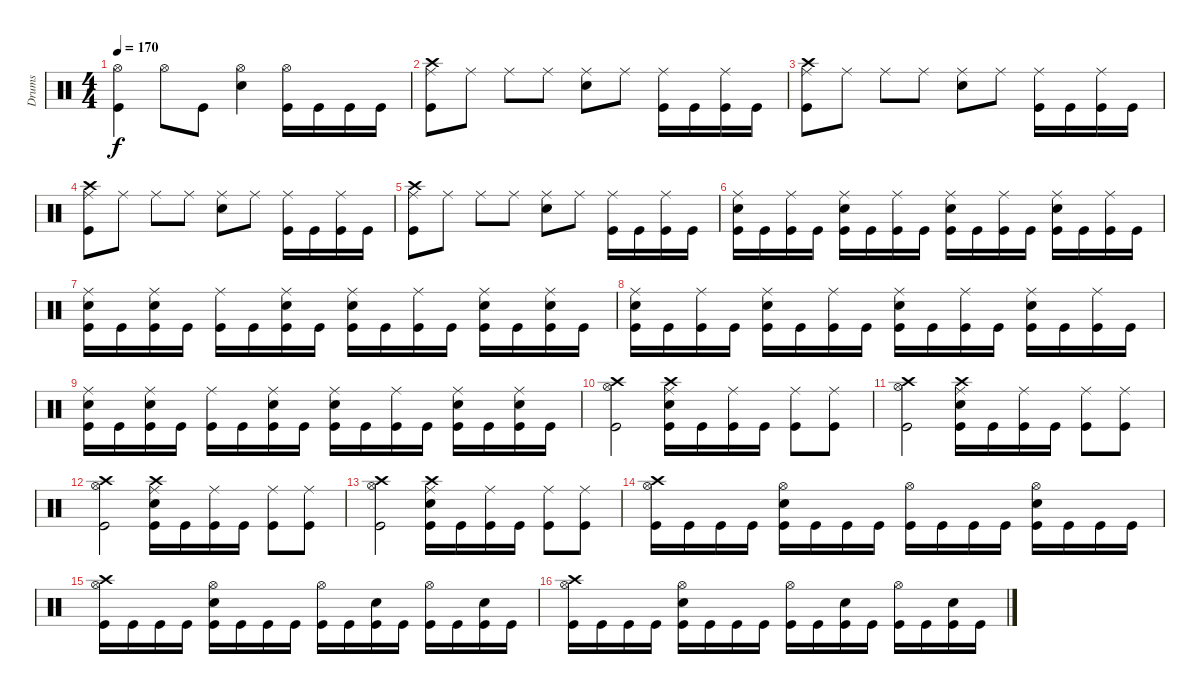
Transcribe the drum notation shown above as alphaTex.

\track ("Drums" "Drums") {instrument percussion}
\staff {score}
\articulation defaults
\ts (4 4)
\tempo 170
\clef neutral
\ks c
("Hi-Hat (open)" "Kick (hit)").4{dy f} "Hi-Hat (open)".8 "Kick (hit)".8 ("Hi-Hat (open)" "Snare (hit) 2").4 ("Hi-Hat (open)" "Kick (hit)").16 "Kick (hit)".16 "Kick (hit)".16 "Kick (hit)".16 |
("Ride (middle)" "Crash high (hit)" "Kick (hit)").8 "Ride (middle)".8 "Ride (middle)".8 "Ride (middle)".8 ("Ride (middle)" "Snare (hit) 2").8 "Ride (middle)".8 ("Ride (middle)" "Kick (hit)").16 "Kick (hit)".16 ("Ride (middle)" "Kick (hit)").16 "Kick (hit)".16 |
("Ride (middle)" "Crash high (hit)" "Kick (hit)").8 "Ride (middle)".8 "Ride (middle)".8 "Ride (middle)".8 ("Ride (middle)" "Snare (hit) 2").8 "Ride (middle)".8 ("Ride (middle)" "Kick (hit)").16 "Kick (hit)".16 ("Ride (middle)" "Kick (hit)").16 "Kick (hit)".16 |
("Ride (middle)" "Crash high (hit)" "Kick (hit)").8 "Ride (middle)".8 "Ride (middle)".8 "Ride (middle)".8 ("Ride (middle)" "Snare (hit) 2").8 "Ride (middle)".8 ("Ride (middle)" "Kick (hit)").16 "Kick (hit)".16 ("Ride (middle)" "Kick (hit)").16 "Kick (hit)".16 |
("Ride (middle)" "Crash high (hit)" "Kick (hit)").8 "Ride (middle)".8 "Ride (middle)".8 "Ride (middle)".8 ("Ride (middle)" "Snare (hit) 2").8 "Ride (middle)".8 ("Ride (middle)" "Kick (hit)").16 "Kick (hit)".16 ("Ride (middle)" "Kick (hit)").16 "Kick (hit)".16 |
("Ride (middle)" "Snare (hit) 2" "Kick (hit)").16 "Kick (hit)".16 ("Ride (middle)" "Kick (hit)").16 "Kick (hit)".16 ("Ride (middle)" "Snare (hit) 2" "Kick (hit)").16 "Kick (hit)".16 ("Ride (middle)" "Kick (hit)").16 "Kick (hit)".16 ("Ride (middle)" "Snare (hit) 2" "Kick (hit)").16 "Kick (hit)".16 ("Ride (middle)" "Kick (hit)").16 "Kick (hit)".16 ("Ride (middle)" "Snare (hit) 2" "Kick (hit)").16 "Kick (hit)".16 ("Ride (middle)" "Kick (hit)").16 "Kick (hit)".16 |
("Ride (middle)" "Snare (hit) 2" "Kick (hit)").16 "Kick (hit)".16 ("Ride (middle)" "Snare (hit) 2" "Kick (hit)").16 "Kick (hit)".16 ("Ride (middle)" "Kick (hit)").16 "Kick (hit)".16 ("Ride (middle)" "Snare (hit) 2" "Kick (hit)").16 "Kick (hit)".16 ("Ride (middle)" "Snare (hit) 2" "Kick (hit)").16 "Kick (hit)".16 ("Ride (middle)" "Kick (hit)").16 "Kick (hit)".16 ("Ride (middle)" "Snare (hit) 2" "Kick (hit)").16 "Kick (hit)".16 ("Ride (middle)" "Snare (hit) 2" "Kick (hit)").16 "Kick (hit)".16 |
("Ride (middle)" "Snare (hit) 2" "Kick (hit)").16 "Kick (hit)".16 ("Ride (middle)" "Kick (hit)").16 "Kick (hit)".16 ("Ride (middle)" "Snare (hit) 2" "Kick (hit)").16 "Kick (hit)".16 ("Ride (middle)" "Kick (hit)").16 "Kick (hit)".16 ("Ride (middle)" "Snare (hit) 2" "Kick (hit)").16 "Kick (hit)".16 ("Ride (middle)" "Kick (hit)").16 "Kick (hit)".16 ("Ride (middle)" "Snare (hit) 2" "Kick (hit)").16 "Kick (hit)".16 ("Ride (middle)" "Kick (hit)").16 "Kick (hit)".16 |
("Ride (middle)" "Snare (hit) 2" "Kick (hit)").16 "Kick (hit)".16 ("Ride (middle)" "Snare (hit) 2" "Kick (hit)").16 "Kick (hit)".16 ("Ride (middle)" "Kick (hit)").16 "Kick (hit)".16 ("Ride (middle)" "Snare (hit) 2" "Kick (hit)").16 "Kick (hit)".16 ("Ride (middle)" "Snare (hit) 2" "Kick (hit)").16 "Kick (hit)".16 ("Ride (middle)" "Kick (hit)").16 "Kick (hit)".16 ("Ride (middle)" "Snare (hit) 2" "Kick (hit)").16 "Kick (hit)".16 ("Ride (middle)" "Snare (hit) 2" "Kick (hit)").16 "Kick (hit)".16 |
("Crash high (hit)" "Hi-Hat (open)" "Kick (hit)").2 ("Crash high (hit)" "Ride (middle)" "Snare (hit) 2" "Kick (hit)").16 "Kick (hit)".16 ("Ride (middle)" "Kick (hit)").16 "Kick (hit)".16 ("Ride (middle)" "Kick (hit)").8 ("Ride (middle)" "Kick (hit)").8 |
("Crash high (hit)" "Hi-Hat (open)" "Kick (hit)").2 ("Crash high (hit)" "Ride (middle)" "Snare (hit) 2" "Kick (hit)").16 "Kick (hit)".16 ("Ride (middle)" "Kick (hit)").16 "Kick (hit)".16 ("Ride (middle)" "Kick (hit)").8 ("Ride (middle)" "Kick (hit)").8 |
("Crash high (hit)" "Hi-Hat (open)" "Kick (hit)").2 ("Crash high (hit)" "Ride (middle)" "Snare (hit) 2" "Kick (hit)").16 "Kick (hit)".16 ("Ride (middle)" "Kick (hit)").16 "Kick (hit)".16 ("Ride (middle)" "Kick (hit)").8 ("Ride (middle)" "Kick (hit)").8 |
("Crash high (hit)" "Hi-Hat (open)" "Kick (hit)").2 ("Crash high (hit)" "Ride (middle)" "Snare (hit) 2" "Kick (hit)").16 "Kick (hit)".16 ("Ride (middle)" "Kick (hit)").16 "Kick (hit)".16 ("Ride (middle)" "Kick (hit)").8 ("Ride (middle)" "Kick (hit)").8 |
("Hi-Hat (open)" "Crash high (hit)" "Kick (hit)").16 "Kick (hit)".16 "Kick (hit)".16 "Kick (hit)".16 ("Hi-Hat (open)" "Snare (hit) 2" "Kick (hit)").16 "Kick (hit)".16 "Kick (hit)".16 "Kick (hit)".16 ("Hi-Hat (open)" "Kick (hit)").16 "Kick (hit)".16 "Kick (hit)".16 "Kick (hit)".16 ("Hi-Hat (open)" "Snare (hit) 2" "Kick (hit)").16 "Kick (hit)".16 "Kick (hit)".16 "Kick (hit)".16 |
("Hi-Hat (open)" "Crash high (hit)" "Kick (hit)").16 "Kick (hit)".16 "Kick (hit)".16 "Kick (hit)".16 ("Hi-Hat (open)" "Snare (hit) 2" "Kick (hit)").16 "Kick (hit)".16 "Kick (hit)".16 "Kick (hit)".16 ("Hi-Hat (open)" "Kick (hit)").16 "Kick (hit)".16 ("Snare (hit) 2" "Kick (hit)").16 "Kick (hit)".16 ("Hi-Hat (open)" "Kick (hit)").16 "Kick (hit)".16 ("Snare (hit) 2" "Kick (hit)").16 "Kick (hit)".16 |
("Hi-Hat (open)" "Crash high (hit)" "Kick (hit)").16 "Kick (hit)".16 "Kick (hit)".16 "Kick (hit)".16 ("Hi-Hat (open)" "Snare (hit) 2" "Kick (hit)").16 "Kick (hit)".16 "Kick (hit)".16 "Kick (hit)".16 ("Hi-Hat (open)" "Kick (hit)").16 "Kick (hit)".16 ("Snare (hit) 2" "Kick (hit)").16 "Kick (hit)".16 ("Hi-Hat (open)" "Kick (hit)").16 "Kick (hit)".16 ("Snare (hit) 2" "Kick (hit)").16 "Kick (hit)".16
